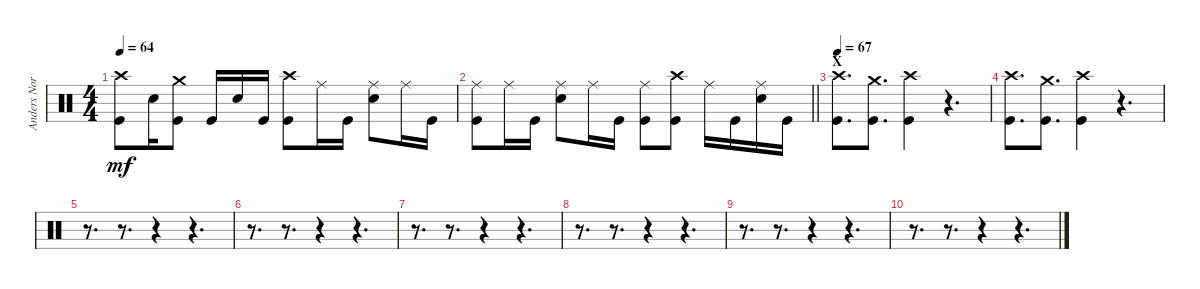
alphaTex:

\track ("Anders Nordin - Drums" "Anders Nor") {instrument percussion}
\staff {score}
\articulation defaults
\ts (4 4)
\tempo 64
\clef neutral
\ks c
("Crash high (hit)" "Kick (hit)").8{dy mf} "Snare (hit) 2".16 ("Kick (hit)" "Crash medium (hit)").8 "Kick (hit)".16 "Snare (hit) 2".16 "Kick (hit)".16 ("Crash high (hit)" "Kick (hit)").8 "Ride (middle)".16 "Kick (hit)".16 ("Snare (hit) 2" "Ride (middle)").8 "Ride (middle)".16 "Kick (hit)".16 |
\barLineRight lightlight
("Ride (middle)" "Kick (hit)").8 "Ride (middle)".16 "Kick (hit)".16 ("Ride (middle)" "Snare (hit) 2").8 "Ride (middle)".16 "Kick (hit)".16 ("Ride (middle)" "Kick (hit)").8 ("Crash high (hit)" "Kick (hit)").8 "Ride (middle)".16 "Kick (hit)".16 ("Snare (hit) 2" "Ride (middle)").16 "Kick (hit)".16 |
\section ("" "X")
\tempo 67
("Crash high (hit)" "Kick (hit)").8{d} ("Crash medium (hit)" "Kick (hit)").8{d} ("Crash high (hit)" "Kick (hit)").4 r.4{d} |
("Crash high (hit)" "Kick (hit)").8{d} ("Crash medium (hit)" "Kick (hit)").8{d} ("Crash high (hit)" "Kick (hit)").4 r.4{d} |
r.8{d} r.8{d} r.4 r.4{d} |
r.8{d} r.8{d} r.4 r.4{d} |
r.8{d} r.8{d} r.4 r.4{d} |
r.8{d} r.8{d} r.4 r.4{d} |
r.8{d} r.8{d} r.4 r.4{d} |
r.8{d} r.8{d} r.4 r.4{d}
